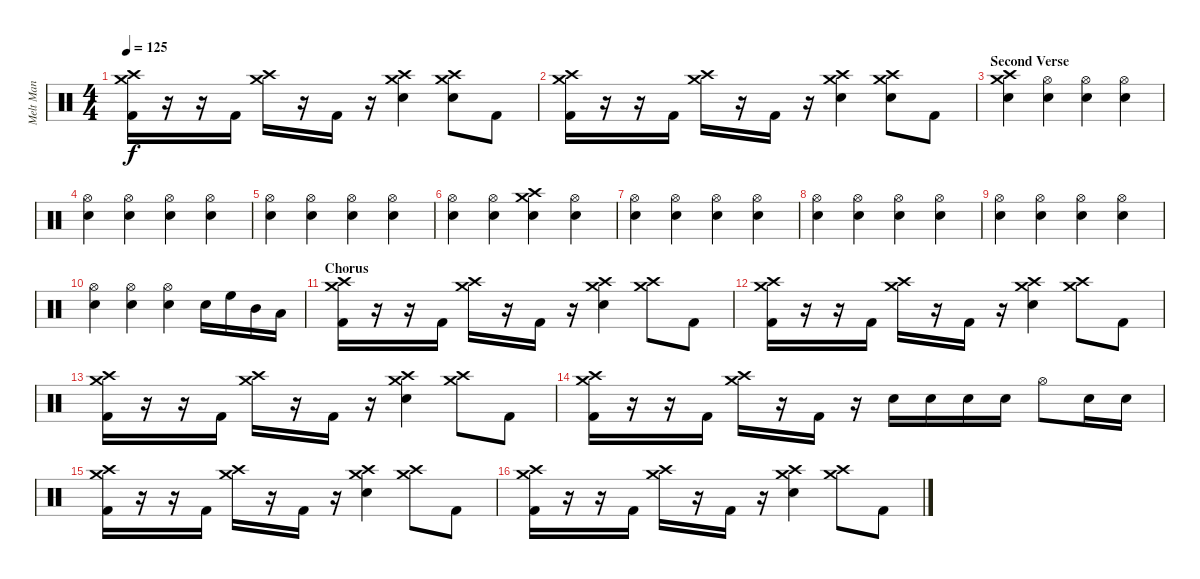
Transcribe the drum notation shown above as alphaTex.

\track ("Melt Man" "Melt Man") {instrument percussion}
\staff {score}
\articulation defaults
\ts (4 4)
\tempo 125
\clef neutral
\ks c
("Crash high (hit)" "Crash medium (hit)" "Kick (hit) 2").16{dy f} r.16 r.16 "Kick (hit) 2".16 ("Crash high (hit)" "Crash medium (hit)").16 r.16 "Kick (hit) 2".16 r.16 ("Crash high (hit)" "Crash medium (hit)" "Snare (hit) 2").4 ("Crash high (hit)" "Crash medium (hit)" "Snare (hit) 2").8 "Kick (hit) 2".8 |
("Crash high (hit)" "Crash medium (hit)" "Kick (hit) 2").16 r.16 r.16 "Kick (hit) 2".16 ("Crash high (hit)" "Crash medium (hit)").16 r.16 "Kick (hit) 2".16 r.16 ("Crash high (hit)" "Crash medium (hit)" "Snare (hit) 2").4 ("Crash high (hit)" "Crash medium (hit)" "Snare (hit) 2").8 "Kick (hit) 2".8 |
\section ("" "Second Verse")
("Crash medium (hit)" "Crash high (hit)" "Snare (hit) 2").4 ("Hi-Hat (open)" "Snare (hit) 2").4 ("Hi-Hat (open)" "Snare (hit) 2").4 ("Hi-Hat (open)" "Snare (hit) 2").4 |
("Hi-Hat (open)" "Snare (hit) 2").4 ("Hi-Hat (open)" "Snare (hit) 2").4 ("Hi-Hat (open)" "Snare (hit) 2").4 ("Hi-Hat (open)" "Snare (hit) 2").4 |
("Hi-Hat (open)" "Snare (hit) 2").4 ("Hi-Hat (open)" "Snare (hit) 2").4 ("Hi-Hat (open)" "Snare (hit) 2").4 ("Hi-Hat (open)" "Snare (hit) 2").4 |
("Hi-Hat (open)" "Snare (hit) 2").4 ("Hi-Hat (open)" "Snare (hit) 2").4 ("Crash medium (hit)" "Crash high (hit)" "Snare (hit) 2").4 ("Hi-Hat (open)" "Snare (hit) 2").4 |
("Hi-Hat (open)" "Snare (hit) 2").4 ("Hi-Hat (open)" "Snare (hit) 2").4 ("Hi-Hat (open)" "Snare (hit) 2").4 ("Hi-Hat (open)" "Snare (hit) 2").4 |
("Hi-Hat (open)" "Snare (hit) 2").4 ("Hi-Hat (open)" "Snare (hit) 2").4 ("Hi-Hat (open)" "Snare (hit) 2").4 ("Hi-Hat (open)" "Snare (hit) 2").4 |
("Hi-Hat (open)" "Snare (hit) 2").4 ("Hi-Hat (open)" "Snare (hit) 2").4 ("Hi-Hat (open)" "Snare (hit) 2").4 ("Hi-Hat (open)" "Snare (hit) 2").4 |
("Hi-Hat (open)" "Snare (hit) 2").4 ("Hi-Hat (open)" "Snare (hit) 2").4 ("Hi-Hat (open)" "Snare (hit) 2").4 "Snare (hit) 2".16 "High Floor Tom (hit)".16 "Mid Tom (hit)".16 "Low Tom (hit)".16 |
\section ("" "Chorus")
("Crash high (hit)" "Crash medium (hit)" "Kick (hit) 2").16 r.16 r.16 "Kick (hit) 2".16 ("Crash high (hit)" "Crash medium (hit)").16 r.16 "Kick (hit) 2".16 r.16 ("Crash high (hit)" "Crash medium (hit)" "Snare (hit) 2").4 ("Crash high (hit)" "Crash medium (hit)").8 "Kick (hit) 2".8 |
("Crash high (hit)" "Crash medium (hit)" "Kick (hit) 2").16 r.16 r.16 "Kick (hit) 2".16 ("Crash high (hit)" "Crash medium (hit)").16 r.16 "Kick (hit) 2".16 r.16 ("Crash high (hit)" "Crash medium (hit)" "Snare (hit) 2").4 ("Crash high (hit)" "Crash medium (hit)").8 "Kick (hit) 2".8 |
("Crash high (hit)" "Crash medium (hit)" "Kick (hit) 2").16 r.16 r.16 "Kick (hit) 2".16 ("Crash high (hit)" "Crash medium (hit)").16 r.16 "Kick (hit) 2".16 r.16 ("Crash high (hit)" "Crash medium (hit)" "Snare (hit) 2").4 ("Crash high (hit)" "Crash medium (hit)").8 "Kick (hit) 2".8 |
("Crash high (hit)" "Crash medium (hit)" "Kick (hit) 2").16 r.16 r.16 "Kick (hit) 2".16 ("Crash high (hit)" "Crash medium (hit)").16 r.16 "Kick (hit) 2".16 r.16 "Snare (hit) 2".16 "Snare (hit) 2".16 "Snare (hit) 2".16 "Snare (hit) 2".16 "Hi-Hat (open)".8 "Snare (hit) 2".16 "Snare (hit) 2".16 |
("Crash high (hit)" "Crash medium (hit)" "Kick (hit) 2").16 r.16 r.16 "Kick (hit) 2".16 ("Crash high (hit)" "Crash medium (hit)").16 r.16 "Kick (hit) 2".16 r.16 ("Crash high (hit)" "Crash medium (hit)" "Snare (hit) 2").4 ("Crash high (hit)" "Crash medium (hit)").8 "Kick (hit) 2".8 |
("Crash high (hit)" "Crash medium (hit)" "Kick (hit) 2").16 r.16 r.16 "Kick (hit) 2".16 ("Crash high (hit)" "Crash medium (hit)").16 r.16 "Kick (hit) 2".16 r.16 ("Crash high (hit)" "Crash medium (hit)" "Snare (hit) 2").4 ("Crash high (hit)" "Crash medium (hit)").8 "Kick (hit) 2".8
